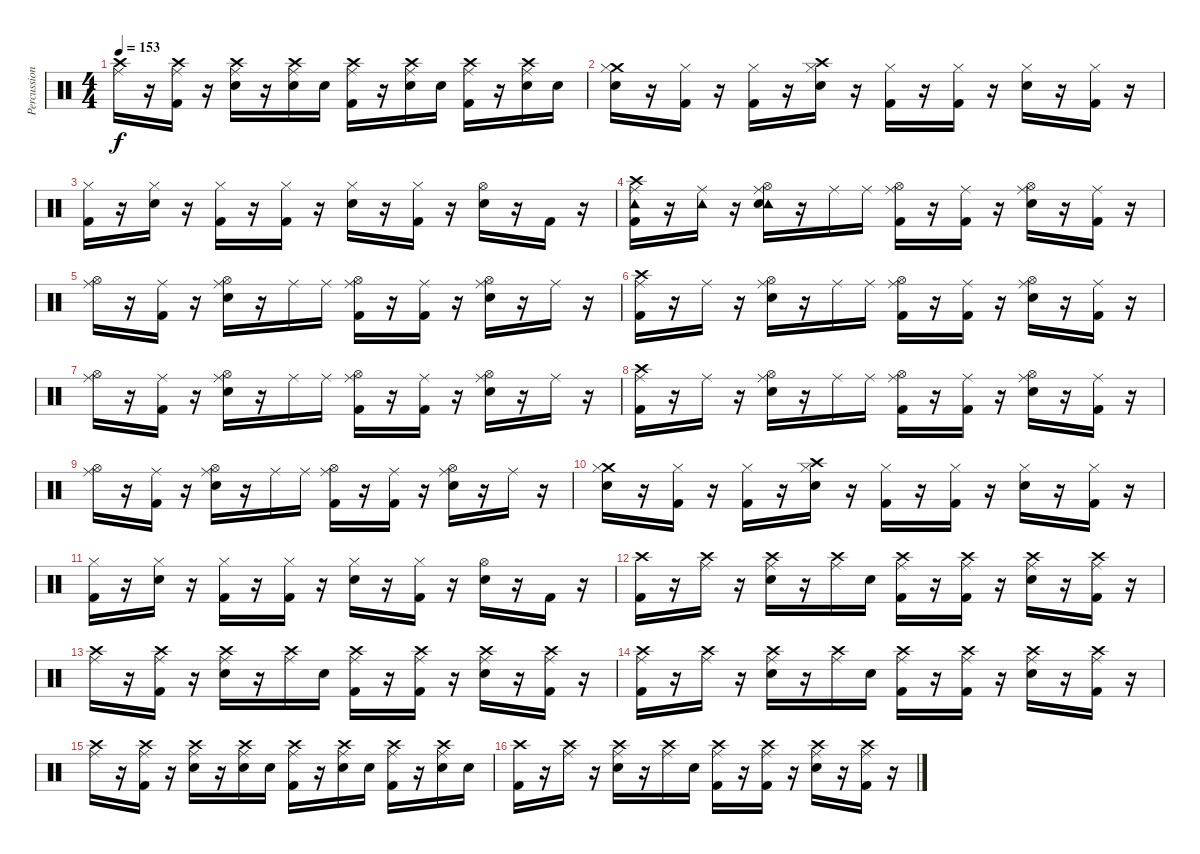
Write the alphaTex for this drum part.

\track ("Percussion" "Percussion") {instrument percussion}
\staff {score}
\articulation defaults
\ts (4 4)
\tempo 153
\clef neutral
\ks c
("Crash high (hit)" "Ride (middle)").16{dy f} r.16 ("Crash high (hit)" "Ride (middle)" "Kick (hit) 2").16 r.16 ("Crash high (hit)" "Ride (middle)" "Electric Snare (hit)").16 r.16 ("Crash high (hit)" "Electric Snare (hit)" "Ride (middle)").16 "Electric Snare (hit)".16 ("Crash high (hit)" "Kick (hit) 2" "Ride (middle)").16 r.16 ("Crash high (hit)" "Electric Snare (hit)" "Ride (middle)").16 "Electric Snare (hit)".16 ("Crash high (hit)" "Kick (hit) 2" "Ride (middle)").16 r.16 ("Crash high (hit)" "Electric Snare (hit)" "Ride (middle)").16 "Electric Snare (hit)".16 |
("Electric Snare (hit)" "Crash medium (hit)" "Hi-Hat (closed)").16 r.16 ("Kick (hit) 2" "Hi-Hat (closed)").16 r.16 ("Kick (hit) 2" "Hi-Hat (closed)").16 r.16 ("Electric Snare (hit)" "Crash high (hit)" "Hi-Hat (closed)").16 r.16 ("Kick (hit) 2" "Hi-Hat (closed)").16 r.16 ("Kick (hit) 2" "Hi-Hat (closed)").16 r.16 ("Electric Snare (hit)" "Hi-Hat (closed)").16 r.16 ("Kick (hit) 2" "Hi-Hat (closed)").16 r.16 |
("Kick (hit) 2" "Hi-Hat (closed)").16 r.16 ("Electric Snare (hit)" "Hi-Hat (closed)").16 r.16 ("Kick (hit) 2" "Hi-Hat (closed)").16 r.16 ("Kick (hit) 2" "Hi-Hat (closed)").16 r.16 ("Electric Snare (hit)" "Hi-Hat (closed)").16 r.16 ("Kick (hit) 2" "Hi-Hat (closed)").16 r.16 ("Electric Snare (hit)" "Hi-Hat (open)").16 r.16 "Kick (hit) 2".16 r.16 |
("Crash high (hit)" "Tambourine (hit)" "Ride (middle)" "Kick (hit) 2").16 r.16 ("Tambourine (hit)" "Ride (middle)").16 r.16 ("Tambourine (hit)" "Hi-Hat (open)" "Ride (middle)" "Electric Snare (hit)").16 r.16 "Ride (middle)".16 "Ride (middle)".16 ("Hi-Hat (open)" "Ride (middle)" "Kick (hit) 2").16 r.16 ("Ride (middle)" "Kick (hit) 2").16 r.16 ("Hi-Hat (open)" "Ride (middle)" "Electric Snare (hit)").16 r.16 ("Ride (middle)" "Kick (hit) 2").16 r.16 |
("Hi-Hat (open)" "Ride (middle)").16 r.16 ("Ride (middle)" "Kick (hit) 2").16 r.16 ("Hi-Hat (open)" "Ride (middle)" "Electric Snare (hit)").16 r.16 "Ride (middle)".16 "Ride (middle)".16 ("Hi-Hat (open)" "Ride (middle)" "Kick (hit) 2").16 r.16 ("Ride (middle)" "Kick (hit) 2").16 r.16 ("Hi-Hat (open)" "Ride (middle)" "Electric Snare (hit)").16 r.16 "Ride (middle)".16 r.16 |
("Crash high (hit)" "Ride (middle)" "Kick (hit) 2").16 r.16 "Ride (middle)".16 r.16 ("Hi-Hat (open)" "Ride (middle)" "Electric Snare (hit)").16 r.16 "Ride (middle)".16 "Ride (middle)".16 ("Hi-Hat (open)" "Ride (middle)" "Kick (hit) 2").16 r.16 ("Ride (middle)" "Kick (hit) 2").16 r.16 ("Hi-Hat (open)" "Ride (middle)" "Electric Snare (hit)").16 r.16 ("Ride (middle)" "Kick (hit) 2").16 r.16 |
("Hi-Hat (open)" "Ride (middle)").16 r.16 ("Ride (middle)" "Kick (hit) 2").16 r.16 ("Hi-Hat (open)" "Ride (middle)" "Electric Snare (hit)").16 r.16 "Ride (middle)".16 "Ride (middle)".16 ("Hi-Hat (open)" "Ride (middle)" "Kick (hit) 2").16 r.16 ("Ride (middle)" "Kick (hit) 2").16 r.16 ("Hi-Hat (open)" "Ride (middle)" "Electric Snare (hit)").16 r.16 "Ride (middle)".16 r.16 |
("Crash high (hit)" "Ride (middle)" "Kick (hit) 2").16 r.16 "Ride (middle)".16 r.16 ("Hi-Hat (open)" "Ride (middle)" "Electric Snare (hit)").16 r.16 "Ride (middle)".16 "Ride (middle)".16 ("Hi-Hat (open)" "Ride (middle)" "Kick (hit) 2").16 r.16 ("Ride (middle)" "Kick (hit) 2").16 r.16 ("Hi-Hat (open)" "Ride (middle)" "Electric Snare (hit)").16 r.16 ("Ride (middle)" "Kick (hit) 2").16 r.16 |
("Hi-Hat (open)" "Ride (middle)").16 r.16 ("Ride (middle)" "Kick (hit) 2").16 r.16 ("Hi-Hat (open)" "Ride (middle)" "Electric Snare (hit)").16 r.16 "Ride (middle)".16 "Ride (middle)".16 ("Hi-Hat (open)" "Ride (middle)" "Kick (hit) 2").16 r.16 ("Ride (middle)" "Kick (hit) 2").16 r.16 ("Hi-Hat (open)" "Ride (middle)" "Electric Snare (hit)").16 r.16 "Ride (middle)".16 r.16 |
("Electric Snare (hit)" "Crash medium (hit)" "Hi-Hat (closed)").16 r.16 ("Kick (hit) 2" "Hi-Hat (closed)").16 r.16 ("Kick (hit) 2" "Hi-Hat (closed)").16 r.16 ("Electric Snare (hit)" "Crash high (hit)" "Hi-Hat (closed)").16 r.16 ("Kick (hit) 2" "Hi-Hat (closed)").16 r.16 ("Kick (hit) 2" "Hi-Hat (closed)").16 r.16 ("Electric Snare (hit)" "Hi-Hat (closed)").16 r.16 ("Kick (hit) 2" "Hi-Hat (closed)").16 r.16 |
("Kick (hit) 2" "Hi-Hat (closed)").16 r.16 ("Electric Snare (hit)" "Hi-Hat (closed)").16 r.16 ("Kick (hit) 2" "Hi-Hat (closed)").16 r.16 ("Kick (hit) 2" "Hi-Hat (closed)").16 r.16 ("Electric Snare (hit)" "Hi-Hat (closed)").16 r.16 ("Kick (hit) 2" "Hi-Hat (closed)").16 r.16 ("Electric Snare (hit)" "Hi-Hat (open)").16 r.16 "Kick (hit) 2".16 r.16 |
("Kick (hit) 2" "Crash high (hit)").16 r.16 ("Crash high (hit)" "Ride (middle)").16 r.16 ("Electric Snare (hit)" "Crash high (hit)" "Ride (middle)").16 r.16 ("Crash high (hit)" "Ride (middle)").16 "Electric Snare (hit)".16 ("Kick (hit) 2" "Crash high (hit)" "Ride (middle)").16 r.16 ("Kick (hit) 2" "Crash high (hit)" "Ride (middle)").16 r.16 ("Electric Snare (hit)" "Crash high (hit)" "Ride (middle)").16 r.16 ("Kick (hit) 2" "Crash high (hit)" "Ride (middle)").16 r.16 |
("Crash high (hit)" "Ride (middle)").16 r.16 ("Crash high (hit)" "Kick (hit) 2" "Ride (middle)").16 r.16 ("Crash high (hit)" "Electric Snare (hit)" "Ride (middle)").16 r.16 ("Crash high (hit)" "Ride (middle)").16 "Electric Snare (hit)".16 ("Kick (hit) 2" "Crash high (hit)" "Ride (middle)").16 r.16 ("Kick (hit) 2" "Crash high (hit)" "Ride (middle)").16 r.16 ("Electric Snare (hit)" "Crash high (hit)" "Ride (middle)").16 r.16 ("Crash high (hit)" "Kick (hit) 2" "Ride (middle)").16 r.16 |
("Kick (hit) 2" "Crash high (hit)" "Ride (middle)").16 r.16 ("Crash high (hit)" "Ride (middle)").16 r.16 ("Electric Snare (hit)" "Crash high (hit)" "Ride (middle)").16 r.16 ("Crash high (hit)" "Ride (middle)").16 "Electric Snare (hit)".16 ("Kick (hit) 2" "Crash high (hit)" "Ride (middle)").16 r.16 ("Kick (hit) 2" "Crash high (hit)" "Ride (middle)").16 r.16 ("Electric Snare (hit)" "Crash high (hit)" "Ride (middle)").16 r.16 ("Kick (hit) 2" "Crash high (hit)" "Ride (middle)").16 r.16 |
("Crash high (hit)" "Ride (middle)").16 r.16 ("Crash high (hit)" "Ride (middle)" "Kick (hit) 2").16 r.16 ("Crash high (hit)" "Ride (middle)" "Electric Snare (hit)").16 r.16 ("Crash high (hit)" "Electric Snare (hit)" "Ride (middle)").16 "Electric Snare (hit)".16 ("Crash high (hit)" "Kick (hit) 2" "Ride (middle)").16 r.16 ("Crash high (hit)" "Electric Snare (hit)" "Ride (middle)").16 "Electric Snare (hit)".16 ("Crash high (hit)" "Kick (hit) 2" "Ride (middle)").16 r.16 ("Crash high (hit)" "Electric Snare (hit)" "Ride (middle)").16 "Electric Snare (hit)".16 |
("Kick (hit) 2" "Crash high (hit)").16 r.16 ("Crash high (hit)" "Ride (middle)").16 r.16 ("Electric Snare (hit)" "Crash high (hit)" "Ride (middle)").16 r.16 ("Crash high (hit)" "Ride (middle)").16 "Electric Snare (hit)".16 ("Kick (hit) 2" "Crash high (hit)" "Ride (middle)").16 r.16 ("Kick (hit) 2" "Crash high (hit)" "Ride (middle)").16 r.16 ("Electric Snare (hit)" "Crash high (hit)" "Ride (middle)").16 r.16 ("Kick (hit) 2" "Crash high (hit)" "Ride (middle)").16 r.16
